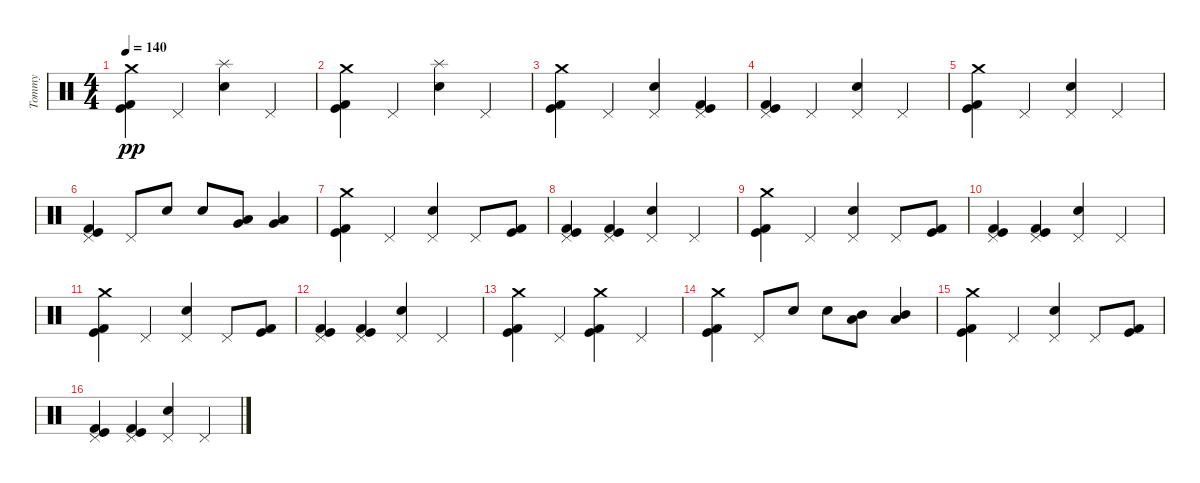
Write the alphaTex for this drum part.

\track ("Tommy" "Tommy") {instrument percussion}
\staff {score}
\articulation defaults
\ts (4 4)
\tempo 140
\clef neutral
\ks c
("Kick (hit) 2" "Kick (hit)" "Crash medium (hit)").4{dy pp} "Pedal Hi-Hat (hit)".4 ("Splash (hit)" "Snare (hit) 2").4 "Pedal Hi-Hat (hit)".4 |
("Crash medium (hit)" "Kick (hit) 2" "Kick (hit)").4 "Pedal Hi-Hat (hit)".4 ("Splash (hit)" "Snare (hit) 2").4 "Pedal Hi-Hat (hit)".4 |
("Kick (hit) 2" "Kick (hit)" "Crash medium (hit)").4 "Pedal Hi-Hat (hit)".4 ("Pedal Hi-Hat (hit)" "Snare (hit) 2").4 ("Kick (hit)" "Kick (hit) 2" "Pedal Hi-Hat (hit)").4 |
("Pedal Hi-Hat (hit)" "Kick (hit) 2" "Kick (hit)").4 "Pedal Hi-Hat (hit)".4 ("Pedal Hi-Hat (hit)" "Snare (hit) 2").4 "Pedal Hi-Hat (hit)".4 |
("Kick (hit) 2" "Kick (hit)" "Crash medium (hit)").4 "Pedal Hi-Hat (hit)".4 ("Pedal Hi-Hat (hit)" "Snare (hit) 2").4 "Pedal Hi-Hat (hit)".4 |
("Pedal Hi-Hat (hit)" "Kick (hit) 2" "Kick (hit)").4 "Pedal Hi-Hat (hit)".8 "Snare (hit) 2".8 "Snare (hit) 2".8 ("Very Low Tom (hit)" "Low Tom (hit)").8 ("Very Low Tom (hit)" "Low Tom (hit)").4 |
("Kick (hit)" "Crash medium (hit)" "Kick (hit) 2").4 "Pedal Hi-Hat (hit)".4 ("Pedal Hi-Hat (hit)" "Snare (hit) 2").4 "Pedal Hi-Hat (hit)".8 ("Kick (hit)" "Kick (hit) 2").8 |
("Pedal Hi-Hat (hit)" "Kick (hit)" "Kick (hit) 2").4 ("Pedal Hi-Hat (hit)" "Kick (hit)" "Kick (hit) 2").4 ("Snare (hit) 2" "Pedal Hi-Hat (hit)").4 "Pedal Hi-Hat (hit)".4 |
("Kick (hit)" "Crash medium (hit)" "Kick (hit) 2").4 "Pedal Hi-Hat (hit)".4 ("Pedal Hi-Hat (hit)" "Snare (hit) 2").4 "Pedal Hi-Hat (hit)".8 ("Kick (hit)" "Kick (hit) 2").8 |
("Pedal Hi-Hat (hit)" "Kick (hit)" "Kick (hit) 2").4 ("Pedal Hi-Hat (hit)" "Kick (hit)" "Kick (hit) 2").4 ("Snare (hit) 2" "Pedal Hi-Hat (hit)").4 "Pedal Hi-Hat (hit)".4 |
("Kick (hit)" "Crash medium (hit)" "Kick (hit) 2").4 "Pedal Hi-Hat (hit)".4 ("Pedal Hi-Hat (hit)" "Snare (hit) 2").4 "Pedal Hi-Hat (hit)".8 ("Kick (hit)" "Kick (hit) 2").8 |
("Pedal Hi-Hat (hit)" "Kick (hit)" "Kick (hit) 2").4 ("Pedal Hi-Hat (hit)" "Kick (hit)" "Kick (hit) 2").4 ("Snare (hit) 2" "Pedal Hi-Hat (hit)").4 "Pedal Hi-Hat (hit)".4 |
("Crash medium (hit)" "Kick (hit)" "Kick (hit) 2").4 "Pedal Hi-Hat (hit)".4 ("Crash medium (hit)" "Kick (hit) 2" "Kick (hit)").4 "Pedal Hi-Hat (hit)".4 |
("Crash medium (hit)" "Kick (hit)" "Kick (hit) 2").4 "Pedal Hi-Hat (hit)".8 "Snare (hit) 2".8 "Snare (hit) 2".8 ("Mid Tom (hit)" "Low Tom (hit)").8 ("Low Tom (hit)" "Mid Tom (hit)").4 |
("Kick (hit)" "Crash medium (hit)" "Kick (hit) 2").4 "Pedal Hi-Hat (hit)".4 ("Pedal Hi-Hat (hit)" "Snare (hit) 2").4 "Pedal Hi-Hat (hit)".8 ("Kick (hit)" "Kick (hit) 2").8 |
("Pedal Hi-Hat (hit)" "Kick (hit)" "Kick (hit) 2").4 ("Pedal Hi-Hat (hit)" "Kick (hit)" "Kick (hit) 2").4 ("Snare (hit) 2" "Pedal Hi-Hat (hit)").4 "Pedal Hi-Hat (hit)".4
